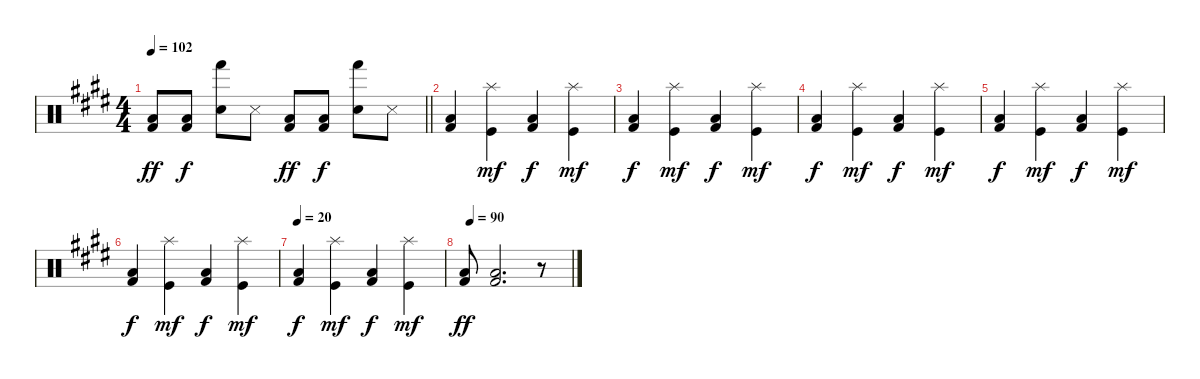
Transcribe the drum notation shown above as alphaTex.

\track "" {instrument percussion}
\staff {score}
\articulation defaults
\ts (4 4)
\tempo 102
\clef neutral
\barLineRight lightlight
\ks e
("Kick (hit) 2" "Low Floor Tom (hit)").8{dy ff} ("Kick (hit) 2" "Low Floor Tom (hit)").8{dy f} ("Electric Snare (hit)" "Hand (hit)").8 "Snare (side stick) 3".8 ("Kick (hit) 2" "Low Floor Tom (hit)").8{dy ff} ("Kick (hit) 2" "Low Floor Tom (hit)").8{dy f} ("Electric Snare (hit)" "Hand (hit)").8 "Snare (side stick) 3".8 |
\section ("" "")
("Kick (hit) 2" "Low Floor Tom (hit)").4 ("Splash (hit)" "Kick (hit)").4{dy mf} ("Kick (hit) 2" "Low Floor Tom (hit)").4{dy f} ("Splash (hit)" "Kick (hit)").4{dy mf} |
("Kick (hit) 2" "Low Floor Tom (hit)").4{dy f} ("Splash (hit)" "Kick (hit)").4{dy mf} ("Kick (hit) 2" "Low Floor Tom (hit)").4{dy f} ("Splash (hit)" "Kick (hit)").4{dy mf} |
("Kick (hit) 2" "Low Floor Tom (hit)").4{dy f} ("Splash (hit)" "Kick (hit)").4{dy mf} ("Kick (hit) 2" "Low Floor Tom (hit)").4{dy f} ("Splash (hit)" "Kick (hit)").4{dy mf} |
("Kick (hit) 2" "Low Floor Tom (hit)").4{dy f} ("Splash (hit)" "Kick (hit)").4{dy mf} ("Kick (hit) 2" "Low Floor Tom (hit)").4{dy f} ("Splash (hit)" "Kick (hit)").4{dy mf} |
("Kick (hit) 2" "Low Floor Tom (hit)").4{dy f} ("Splash (hit)" "Kick (hit)").4{dy mf} ("Kick (hit) 2" "Low Floor Tom (hit)").4{dy f} ("Splash (hit)" "Kick (hit)").4{dy mf} |
\tempo 20
("Kick (hit) 2" "Low Floor Tom (hit)").4{dy f} ("Splash (hit)" "Kick (hit)").4{dy mf} ("Kick (hit) 2" "Low Floor Tom (hit)").4{dy f} ("Splash (hit)" "Kick (hit)").4{dy mf} |
\tempo (90 0.0625)
("Kick (hit) 2" "Low Floor Tom (hit)").8{dy ff} ("Kick (hit) 2" "Low Floor Tom (hit)").2{d} r.8
